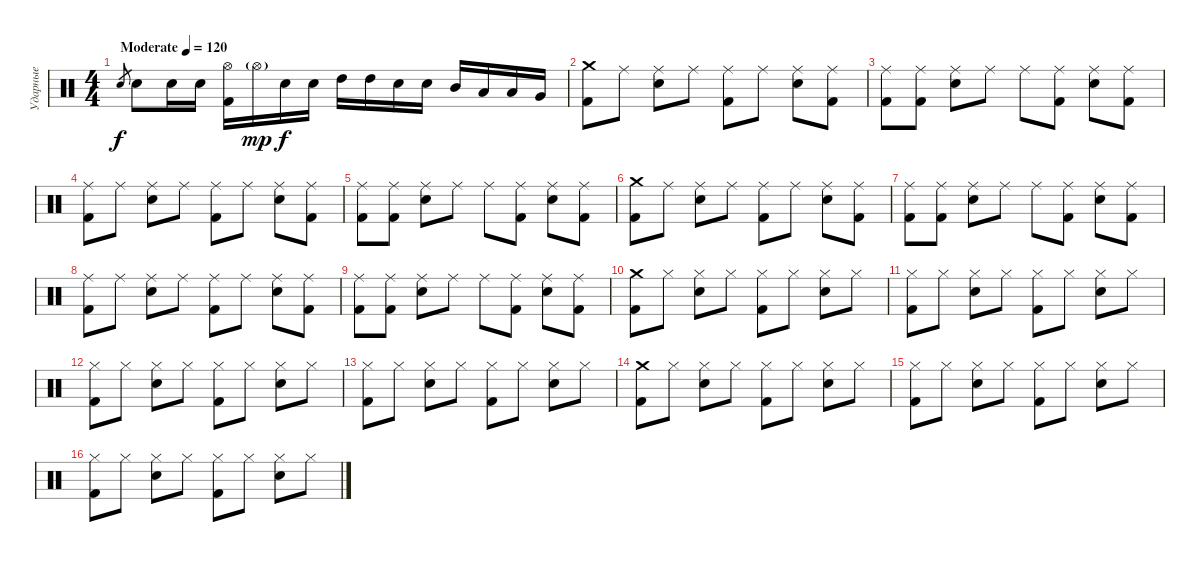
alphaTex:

\track ("Ударные" "Ударные") {instrument percussion}
\staff {score}
\articulation defaults
\ts (4 4)
\tempo (120 "Moderate")
\clef neutral
\ks c "Electric Snare (hit)".8{gr dy f} "Electric Snare (hit)".8 "Electric Snare (hit)".16 "Electric Snare (hit)".16
("Hi-Hat (open)" "Kick (hit) 2").16 "Hi-Hat (open)"{g}.16{dy mp} "Electric Snare (hit)".16{dy f} "Electric Snare (hit)".16 "High Tom (hit)".16 "High Tom (hit)".16 "Electric Snare (hit)".16 "Electric Snare (hit)".16 "Mid Tom (hit)".16 "Low Tom (hit)".16 "Low Tom (hit)".16 "Very Low Tom (hit)".16 |
("Crash medium (hit)" "Kick (hit) 2").8 "Ride (middle)".8 ("Ride (middle)" "Electric Snare (hit)").8 "Ride (middle)".8 ("Ride (middle)" "Kick (hit) 2").8 "Ride (middle)".8 ("Ride (middle)" "Electric Snare (hit)").8 ("Ride (middle)" "Kick (hit) 2").8 |
("Ride (middle)" "Kick (hit) 2").8 ("Ride (middle)" "Kick (hit) 2").8 ("Ride (middle)" "Electric Snare (hit)").8 "Ride (middle)".8 "Ride (middle)".8 ("Ride (middle)" "Kick (hit) 2").8 ("Ride (middle)" "Electric Snare (hit)").8 ("Ride (middle)" "Kick (hit) 2").8 |
("Ride (middle)" "Kick (hit) 2").8 "Ride (middle)".8 ("Ride (middle)" "Electric Snare (hit)").8 "Ride (middle)".8 ("Ride (middle)" "Kick (hit) 2").8 "Ride (middle)".8 ("Ride (middle)" "Electric Snare (hit)").8 ("Ride (middle)" "Kick (hit) 2").8 |
("Ride (middle)" "Kick (hit) 2").8 ("Ride (middle)" "Kick (hit) 2").8 ("Ride (middle)" "Electric Snare (hit)").8 "Ride (middle)".8 "Ride (middle)".8 ("Ride (middle)" "Kick (hit) 2").8 ("Ride (middle)" "Electric Snare (hit)").8 ("Ride (middle)" "Kick (hit) 2").8 |
("Crash medium (hit)" "Kick (hit) 2").8 "Ride (middle)".8 ("Ride (middle)" "Electric Snare (hit)").8 "Ride (middle)".8 ("Ride (middle)" "Kick (hit) 2").8 "Ride (middle)".8 ("Ride (middle)" "Electric Snare (hit)").8 ("Ride (middle)" "Kick (hit) 2").8 |
("Ride (middle)" "Kick (hit) 2").8 ("Ride (middle)" "Kick (hit) 2").8 ("Ride (middle)" "Electric Snare (hit)").8 "Ride (middle)".8 "Ride (middle)".8 ("Ride (middle)" "Kick (hit) 2").8 ("Ride (middle)" "Electric Snare (hit)").8 ("Ride (middle)" "Kick (hit) 2").8 |
("Ride (middle)" "Kick (hit) 2").8 "Ride (middle)".8 ("Ride (middle)" "Electric Snare (hit)").8 "Ride (middle)".8 ("Ride (middle)" "Kick (hit) 2").8 "Ride (middle)".8 ("Ride (middle)" "Electric Snare (hit)").8 ("Ride (middle)" "Kick (hit) 2").8 |
("Ride (middle)" "Kick (hit) 2").8 ("Ride (middle)" "Kick (hit) 2").8 ("Ride (middle)" "Electric Snare (hit)").8 "Ride (middle)".8 "Ride (middle)".8 ("Ride (middle)" "Kick (hit) 2").8 ("Ride (middle)" "Electric Snare (hit)").8 ("Ride (middle)" "Kick (hit) 2").8 |
("Crash medium (hit)" "Kick (hit) 2").8 "Hi-Hat (closed)".8 ("Hi-Hat (closed)" "Electric Snare (hit)").8 "Hi-Hat (closed)".8 ("Hi-Hat (closed)" "Kick (hit) 2").8 "Hi-Hat (closed)".8 ("Hi-Hat (closed)" "Electric Snare (hit)").8 "Hi-Hat (closed)".8 |
("Hi-Hat (closed)" "Kick (hit) 2").8 "Hi-Hat (closed)".8 ("Hi-Hat (closed)" "Electric Snare (hit)").8 "Hi-Hat (closed)".8 ("Hi-Hat (closed)" "Kick (hit) 2").8 "Hi-Hat (closed)".8 ("Hi-Hat (closed)" "Electric Snare (hit)").8 "Hi-Hat (closed)".8 |
("Hi-Hat (closed)" "Kick (hit) 2").8 "Hi-Hat (closed)".8 ("Hi-Hat (closed)" "Electric Snare (hit)").8 "Hi-Hat (closed)".8 ("Hi-Hat (closed)" "Kick (hit) 2").8 "Hi-Hat (closed)".8 ("Hi-Hat (closed)" "Electric Snare (hit)").8 "Hi-Hat (closed)".8 |
("Hi-Hat (closed)" "Kick (hit) 2").8 "Hi-Hat (closed)".8 ("Hi-Hat (closed)" "Electric Snare (hit)").8 "Hi-Hat (closed)".8 ("Hi-Hat (closed)" "Kick (hit) 2").8 "Hi-Hat (closed)".8 ("Hi-Hat (closed)" "Electric Snare (hit)").8 "Hi-Hat (closed)".8 |
("Crash medium (hit)" "Kick (hit) 2").8 "Hi-Hat (closed)".8 ("Hi-Hat (closed)" "Electric Snare (hit)").8 "Hi-Hat (closed)".8 ("Hi-Hat (closed)" "Kick (hit) 2").8 "Hi-Hat (closed)".8 ("Hi-Hat (closed)" "Electric Snare (hit)").8 "Hi-Hat (closed)".8 |
("Hi-Hat (closed)" "Kick (hit) 2").8 "Hi-Hat (closed)".8 ("Hi-Hat (closed)" "Electric Snare (hit)").8 "Hi-Hat (closed)".8 ("Hi-Hat (closed)" "Kick (hit) 2").8 "Hi-Hat (closed)".8 ("Hi-Hat (closed)" "Electric Snare (hit)").8 "Hi-Hat (closed)".8 |
("Hi-Hat (closed)" "Kick (hit) 2").8 "Hi-Hat (closed)".8 ("Hi-Hat (closed)" "Electric Snare (hit)").8 "Hi-Hat (closed)".8 ("Hi-Hat (closed)" "Kick (hit) 2").8 "Hi-Hat (closed)".8 ("Hi-Hat (closed)" "Electric Snare (hit)").8 "Hi-Hat (closed)".8
